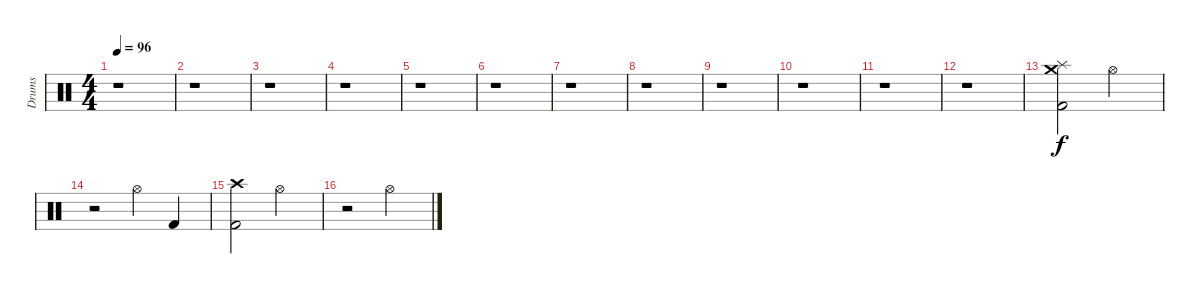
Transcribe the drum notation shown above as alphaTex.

\track ("Drums" "Drums") {instrument percussion}
\staff {score}
\articulation defaults
\ts (4 4)
\tempo 96
\clef neutral
\ks c
r.1{dy f} |
r.1 |
r.1 |
r.1 |
r.1 |
r.1 |
r.1 |
r.1 |
r.1 |
r.1 |
r.1 |
r.1 |
\section ("" "")
("Kick (hit) 2" "Splash (hit)" "Crash medium (hit)").2 "Hi-Hat (open)".2 |
r.2 "Hi-Hat (open)".4 "Kick (hit) 2".4 |
("Kick (hit) 2" "Crash high (hit)").2 "Hi-Hat (open)".2 |
r.2 "Hi-Hat (open)".2
